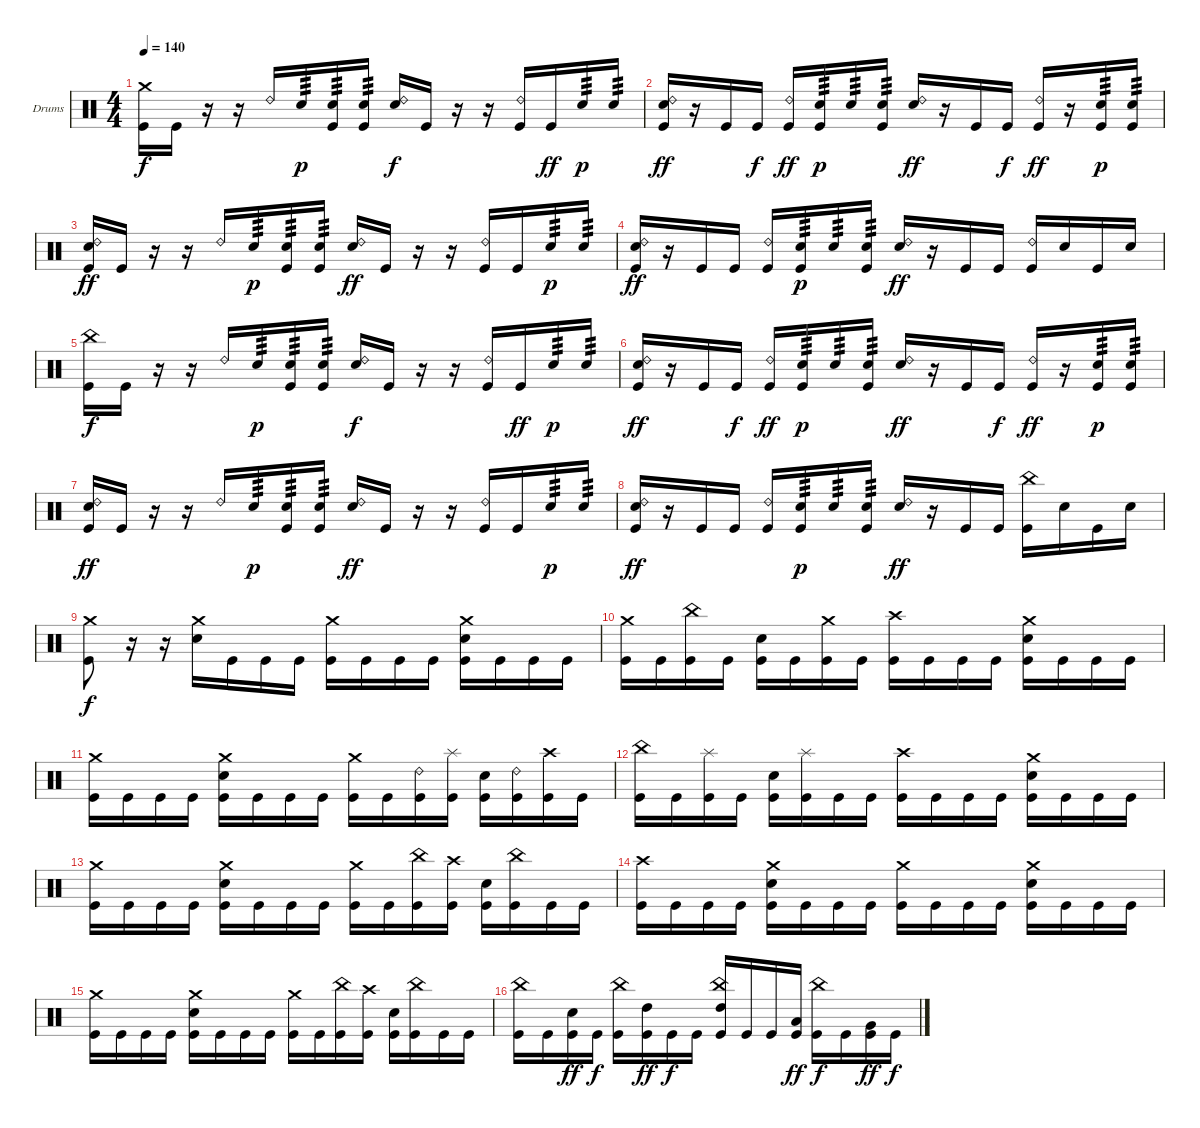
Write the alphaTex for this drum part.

\defaultSystemsLayout 4
\bracketExtendMode groupsimilarinstruments
\firstSystemTrackNameOrientation horizontal
\otherSystemsTrackNameOrientation horizontal
\track ("Drumkit" "Drums") {instrument percussion}
\staff {score}
\articulation defaults
\ts (4 4)
\tempo 140
\clef neutral
\ks c
("Crash medium (hit)" "Kick (hit)").16{dy f} "Kick (hit)".16 r.16 r.16 "Ride (bell) 2".16 "Snare (hit) 2".16{tp 3 dy p} ("Snare (hit) 2" "Kick (hit)").16{tp 3} ("Snare (hit) 2" "Kick (hit)").16{tp 3} ("Ride (bell) 2" "Snare (hit) 2").16{dy f} "Kick (hit)".16 r.16 r.16 ("Ride (bell) 2" "Kick (hit)").16 "Kick (hit)".16{dy ff} "Snare (hit) 2".16{tp 3 dy p} "Snare (hit) 2".16{tp 3} |
("Ride (bell) 2" "Snare (hit) 2" "Kick (hit)").16{dy ff} r.16 "Kick (hit)".16 "Kick (hit)".16{dy f} ("Ride (bell) 2" "Kick (hit)").16{dy ff} ("Snare (hit) 2" "Kick (hit)").16{tp 3 dy p} "Snare (hit) 2".16{tp 3} ("Snare (hit) 2" "Kick (hit)").16{tp 3} ("Ride (bell) 2" "Snare (hit) 2").16{dy ff} r.16 "Kick (hit)".16 "Kick (hit)".16{dy f} ("Ride (bell) 2" "Kick (hit)").16{dy ff} r.16 ("Snare (hit) 2" "Kick (hit)").16{tp 3 dy p} ("Snare (hit) 2" "Kick (hit)").16{tp 3} |
("Ride (bell) 2" "Snare (hit) 2" "Kick (hit)").16{dy ff} "Kick (hit)".16 r.16 r.16 "Ride (bell) 2".16 "Snare (hit) 2".16{tp 3 dy p} ("Snare (hit) 2" "Kick (hit)").16{tp 3} ("Snare (hit) 2" "Kick (hit)").16{tp 3} ("Ride (bell) 2" "Snare (hit) 2").16{dy ff} "Kick (hit)".16 r.16 r.16 ("Ride (bell) 2" "Kick (hit)").16 "Kick (hit)".16 "Snare (hit) 2".16{tp 3 dy p} "Snare (hit) 2".16{tp 3} |
("Ride (bell) 2" "Snare (hit) 2" "Kick (hit)").16{dy ff} r.16 "Kick (hit)".16 "Kick (hit)".16 ("Ride (bell) 2" "Kick (hit)").16 ("Snare (hit) 2" "Kick (hit)").16{tp 3 dy p} "Snare (hit) 2".16{tp 3} ("Snare (hit) 2" "Kick (hit)").16{tp 3} ("Ride (bell) 2" "Snare (hit) 2").16{dy ff} r.16 "Kick (hit)".16 "Kick (hit)".16 ("Ride (bell) 2" "Kick (hit)").16 "Snare (hit) 2".16 "Kick (hit)".16 "Snare (hit) 2".16 |
("China (hit)" "Kick (hit)").16{dy f} "Kick (hit)".16 r.16 r.16 "Ride (bell) 2".16 "Snare (hit) 2".16{tp 3 dy p} ("Snare (hit) 2" "Kick (hit)").16{tp 3} ("Snare (hit) 2" "Kick (hit)").16{tp 3} ("Ride (bell) 2" "Snare (hit) 2").16{dy f} "Kick (hit)".16 r.16 r.16 ("Ride (bell) 2" "Kick (hit)").16 "Kick (hit)".16{dy ff} "Snare (hit) 2".16{tp 3 dy p} "Snare (hit) 2".16{tp 3} |
("Ride (bell) 2" "Snare (hit) 2" "Kick (hit)").16{dy ff} r.16 "Kick (hit)".16 "Kick (hit)".16{dy f} ("Ride (bell) 2" "Kick (hit)").16{dy ff} ("Snare (hit) 2" "Kick (hit)").16{tp 3 dy p} "Snare (hit) 2".16{tp 3} ("Snare (hit) 2" "Kick (hit)").16{tp 3} ("Ride (bell) 2" "Snare (hit) 2").16{dy ff} r.16 "Kick (hit)".16 "Kick (hit)".16{dy f} ("Ride (bell) 2" "Kick (hit)").16{dy ff} r.16 ("Snare (hit) 2" "Kick (hit)").16{tp 3 dy p} ("Snare (hit) 2" "Kick (hit)").16{tp 3} |
("Ride (bell) 2" "Snare (hit) 2" "Kick (hit)").16{dy ff} "Kick (hit)".16 r.16 r.16 "Ride (bell) 2".16 "Snare (hit) 2".16{tp 3 dy p} ("Snare (hit) 2" "Kick (hit)").16{tp 3} ("Snare (hit) 2" "Kick (hit)").16{tp 3} ("Ride (bell) 2" "Snare (hit) 2").16{dy ff} "Kick (hit)".16 r.16 r.16 ("Ride (bell) 2" "Kick (hit)").16 "Kick (hit)".16 "Snare (hit) 2".16{tp 3 dy p} "Snare (hit) 2".16{tp 3} |
("Ride (bell) 2" "Snare (hit) 2" "Kick (hit)").16{dy ff} r.16 "Kick (hit)".16 "Kick (hit)".16 ("Ride (bell) 2" "Kick (hit)").16 ("Snare (hit) 2" "Kick (hit)").16{tp 3 dy p} "Snare (hit) 2".16{tp 3} ("Snare (hit) 2" "Kick (hit)").16{tp 3} ("Ride (bell) 2" "Snare (hit) 2").16{dy ff} r.16 "Kick (hit)".16 "Kick (hit)".16 ("China (hit)" "Kick (hit)").16 "Snare (hit) 2".16 "Kick (hit)".16 "Snare (hit) 2".16 |
("Crash medium (hit)" "Kick (hit)").8{dy f} r.16 r.16 ("Crash medium (hit)" "Snare (hit) 2").16 "Kick (hit)".16 "Kick (hit)".16 "Kick (hit)".16 ("Crash medium (hit)" "Kick (hit)").16 "Kick (hit)".16 "Kick (hit)".16 "Kick (hit)".16 ("Crash medium (hit)" "Snare (hit) 2" "Kick (hit)").16 "Kick (hit)".16 "Kick (hit)".16 "Kick (hit)".16 |
("Crash medium (hit)" "Kick (hit)").16 "Kick (hit)".16 ("China (hit)" "Kick (hit)").16 "Kick (hit)".16 ("Snare (hit) 2" "Kick (hit)").16 "Kick (hit)".16 ("Crash medium (hit)" "Kick (hit)").16 "Kick (hit)".16 ("Crash high (hit)" "Kick (hit)").16 "Kick (hit)".16 "Kick (hit)".16 "Kick (hit)".16 ("Crash medium (hit)" "Snare (hit) 2" "Kick (hit)").16 "Kick (hit)".16 "Kick (hit)".16 "Kick (hit)".16 |
("Crash medium (hit)" "Kick (hit)").16 "Kick (hit)".16 "Kick (hit)".16 "Kick (hit)".16 ("Crash medium (hit)" "Snare (hit) 2" "Kick (hit)").16 "Kick (hit)".16 "Kick (hit)".16 "Kick (hit)".16 ("Crash medium (hit)" "Kick (hit)").16 "Kick (hit)".16 ("Ride (bell) 2" "Kick (hit)").16 ("Splash (hit)" "Kick (hit)").16 ("Snare (hit) 2" "Kick (hit)").16 ("Ride (bell) 2" "Kick (hit)").16 ("Crash high (hit)" "Kick (hit)").16 "Kick (hit)".16 |
("China (hit)" "Kick (hit)").16 "Kick (hit)".16 ("Splash (hit)" "Kick (hit)").16 "Kick (hit)".16 ("Snare (hit) 2" "Kick (hit)").16 ("Splash (hit)" "Kick (hit)").16 "Kick (hit)".16 "Kick (hit)".16 ("Crash high (hit)" "Kick (hit)").16 "Kick (hit)".16 "Kick (hit)".16 "Kick (hit)".16 ("Crash medium (hit)" "Snare (hit) 2" "Kick (hit)").16 "Kick (hit)".16 "Kick (hit)".16 "Kick (hit)".16 |
("Crash medium (hit)" "Kick (hit)").16 "Kick (hit)".16 "Kick (hit)".16 "Kick (hit)".16 ("Crash medium (hit)" "Snare (hit) 2" "Kick (hit)").16 "Kick (hit)".16 "Kick (hit)".16 "Kick (hit)".16 ("Crash medium (hit)" "Kick (hit)").16 "Kick (hit)".16 ("China (hit)" "Kick (hit)").16 ("Crash high (hit)" "Kick (hit)").16 ("Snare (hit) 2" "Kick (hit)").16 ("China (hit)" "Kick (hit)").16 "Kick (hit)".16 "Kick (hit)".16 |
("Crash high (hit)" "Kick (hit)").16 "Kick (hit)".16 "Kick (hit)".16 "Kick (hit)".16 ("Crash medium (hit)" "Snare (hit) 2" "Kick (hit)").16 "Kick (hit)".16 "Kick (hit)".16 "Kick (hit)".16 ("Crash medium (hit)" "Kick (hit)").16 "Kick (hit)".16 "Kick (hit)".16 "Kick (hit)".16 ("Crash medium (hit)" "Snare (hit) 2" "Kick (hit)").16 "Kick (hit)".16 "Kick (hit)".16 "Kick (hit)".16 |
("Crash medium (hit)" "Kick (hit)").16 "Kick (hit)".16 "Kick (hit)".16 "Kick (hit)".16 ("Crash medium (hit)" "Snare (hit) 2" "Kick (hit)").16 "Kick (hit)".16 "Kick (hit)".16 "Kick (hit)".16 ("Crash medium (hit)" "Kick (hit)").16 "Kick (hit)".16 ("China (hit)" "Kick (hit)").16 ("Crash high (hit)" "Kick (hit)").16 ("Snare (hit) 2" "Kick (hit)").16 ("China (hit)" "Kick (hit)").16 "Kick (hit)".16 "Kick (hit)".16 |
("China (hit)" "Kick (hit)").16 "Kick (hit)".16 ("Snare (hit) 2" "Kick (hit)").16{dy ff} "Kick (hit)".16{dy f} ("China (hit)" "Kick (hit)").16 ("High Tom (hit)" "Kick (hit)").16{dy ff} "Kick (hit)".16{dy f} "Kick (hit)".16 ("China (hit)" "High Tom (hit)" "Kick (hit)").16 "Kick (hit)".16 "Kick (hit)".16 ("Low Tom (hit)" "Kick (hit)").16{dy ff} ("China (hit)" "Kick (hit)").16{dy f} "Kick (hit)".16 ("Very Low Tom (hit)" "Kick (hit)").16{dy ff} "Kick (hit)".16{dy f}
